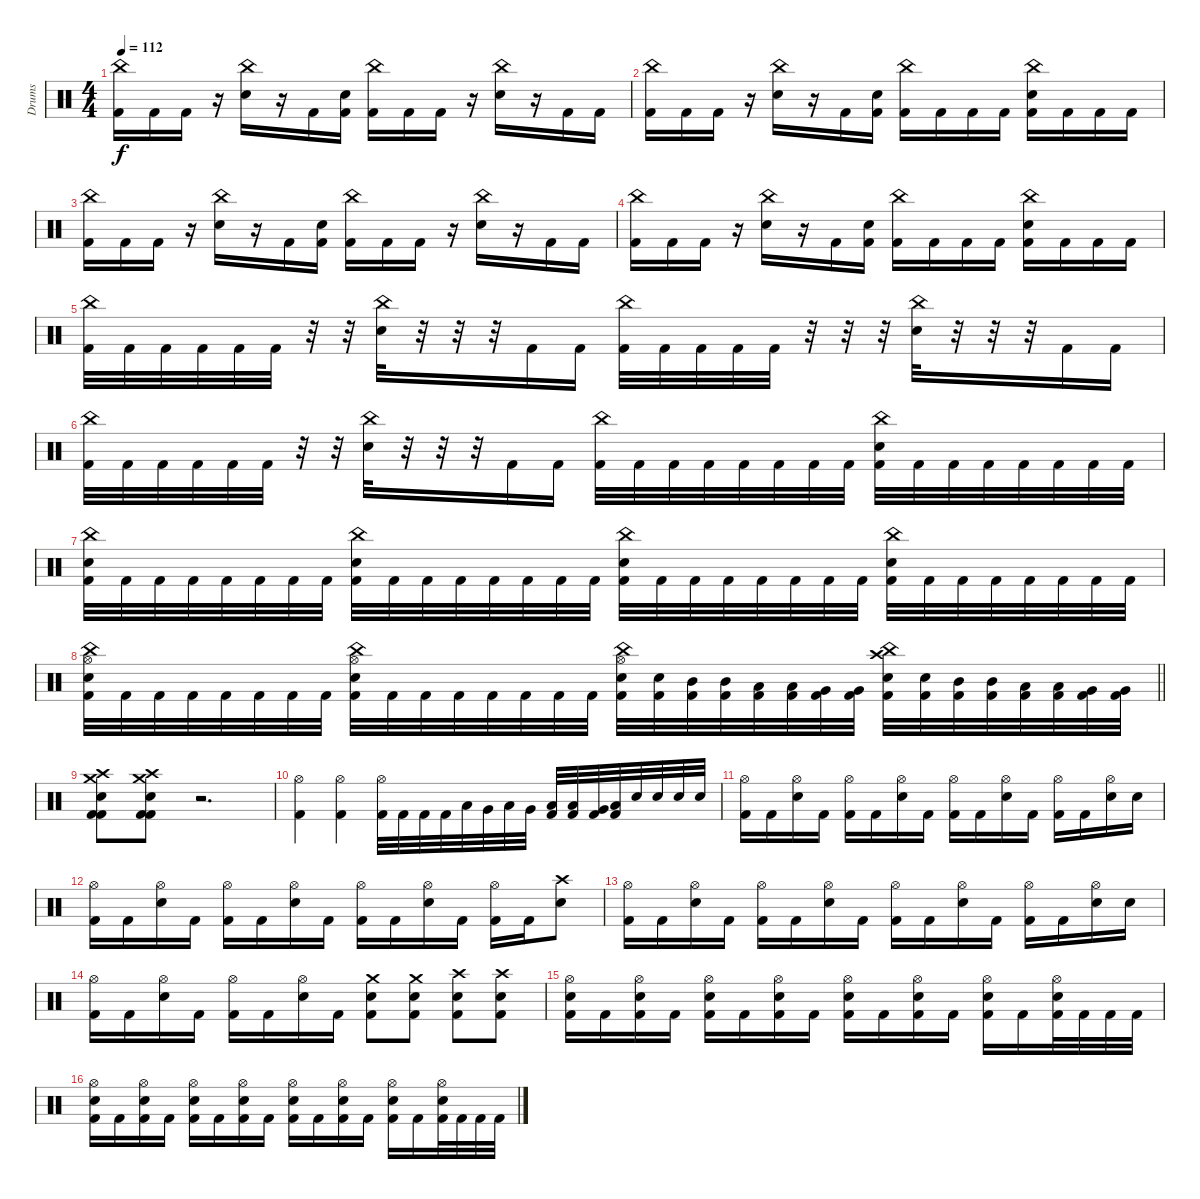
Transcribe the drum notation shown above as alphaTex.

\track ("Drums" "Drums") {instrument percussion}
\staff {score}
\articulation defaults
\ts (4 4)
\tempo 112
\clef neutral
\ks c
("China (hit)" "Kick (hit) 2").16{dy f} "Kick (hit) 2".16 "Kick (hit) 2".16 r.16 ("China (hit)" "Electric Snare (hit)").16 r.16 "Kick (hit) 2".16 ("Electric Snare (hit)" "Kick (hit) 2").16 ("China (hit)" "Kick (hit) 2").16 "Kick (hit) 2".16 "Kick (hit) 2".16 r.16 ("China (hit)" "Electric Snare (hit)").16 r.16 "Kick (hit) 2".16 "Kick (hit) 2".16 |
("China (hit)" "Kick (hit) 2").16 "Kick (hit) 2".16 "Kick (hit) 2".16 r.16 ("China (hit)" "Electric Snare (hit)").16 r.16 "Kick (hit) 2".16 ("Electric Snare (hit)" "Kick (hit) 2").16 ("China (hit)" "Kick (hit) 2").16 "Kick (hit) 2".16 "Kick (hit) 2".16 "Kick (hit) 2".16 ("China (hit)" "Electric Snare (hit)" "Kick (hit) 2").16 "Kick (hit) 2".16 "Kick (hit) 2".16 "Kick (hit) 2".16 |
("China (hit)" "Kick (hit) 2").16 "Kick (hit) 2".16 "Kick (hit) 2".16 r.16 ("China (hit)" "Electric Snare (hit)").16 r.16 "Kick (hit) 2".16 ("Electric Snare (hit)" "Kick (hit) 2").16 ("China (hit)" "Kick (hit) 2").16 "Kick (hit) 2".16 "Kick (hit) 2".16 r.16 ("China (hit)" "Electric Snare (hit)").16 r.16 "Kick (hit) 2".16 "Kick (hit) 2".16 |
("China (hit)" "Kick (hit) 2").16 "Kick (hit) 2".16 "Kick (hit) 2".16 r.16 ("China (hit)" "Electric Snare (hit)").16 r.16 "Kick (hit) 2".16 ("Electric Snare (hit)" "Kick (hit) 2").16 ("China (hit)" "Kick (hit) 2").16 "Kick (hit) 2".16 "Kick (hit) 2".16 "Kick (hit) 2".16 ("China (hit)" "Electric Snare (hit)" "Kick (hit) 2").16 "Kick (hit) 2".16 "Kick (hit) 2".16 "Kick (hit) 2".16 |
("China (hit)" "Kick (hit) 2").32 "Kick (hit) 2".32 "Kick (hit) 2".32 "Kick (hit) 2".32 "Kick (hit) 2".32 "Kick (hit) 2".32 r.32 r.32 ("China (hit)" "Electric Snare (hit)").32 r.32 r.32 r.32 "Kick (hit) 2".16 "Kick (hit) 2".16 ("China (hit)" "Kick (hit) 2").32 "Kick (hit) 2".32 "Kick (hit) 2".32 "Kick (hit) 2".32 "Kick (hit) 2".32 r.32 r.32 r.32 ("China (hit)" "Electric Snare (hit)").32 r.32 r.32 r.32 "Kick (hit) 2".16 "Kick (hit) 2".16 |
("China (hit)" "Kick (hit) 2").32 "Kick (hit) 2".32 "Kick (hit) 2".32 "Kick (hit) 2".32 "Kick (hit) 2".32 "Kick (hit) 2".32 r.32 r.32 ("China (hit)" "Electric Snare (hit)").32 r.32 r.32 r.32 "Kick (hit) 2".16 "Kick (hit) 2".16 ("China (hit)" "Kick (hit) 2").32 "Kick (hit) 2".32 "Kick (hit) 2".32 "Kick (hit) 2".32 "Kick (hit) 2".32 "Kick (hit) 2".32 "Kick (hit) 2".32 "Kick (hit) 2".32 ("China (hit)" "Electric Snare (hit)" "Kick (hit) 2").32 "Kick (hit) 2".32 "Kick (hit) 2".32 "Kick (hit) 2".32 "Kick (hit) 2".32 "Kick (hit) 2".32 "Kick (hit) 2".32 "Kick (hit) 2".32 |
("China (hit)" "Electric Snare (hit)" "Kick (hit) 2").32 "Kick (hit) 2".32 "Kick (hit) 2".32 "Kick (hit) 2".32 "Kick (hit) 2".32 "Kick (hit) 2".32 "Kick (hit) 2".32 "Kick (hit) 2".32 ("China (hit)" "Electric Snare (hit)" "Kick (hit) 2").32 "Kick (hit) 2".32 "Kick (hit) 2".32 "Kick (hit) 2".32 "Kick (hit) 2".32 "Kick (hit) 2".32 "Kick (hit) 2".32 "Kick (hit) 2".32 ("China (hit)" "Electric Snare (hit)" "Kick (hit) 2").32 "Kick (hit) 2".32 "Kick (hit) 2".32 "Kick (hit) 2".32 "Kick (hit) 2".32 "Kick (hit) 2".32 "Kick (hit) 2".32 "Kick (hit) 2".32 ("China (hit)" "Electric Snare (hit)" "Kick (hit) 2").32 "Kick (hit) 2".32 "Kick (hit) 2".32 "Kick (hit) 2".32 "Kick (hit) 2".32 "Kick (hit) 2".32 "Kick (hit) 2".32 "Kick (hit) 2".32 |
\barLineRight lightlight
("China (hit)" "Hi-Hat (open)" "Electric Snare (hit)" "Kick (hit) 2").32 "Kick (hit) 2".32 "Kick (hit) 2".32 "Kick (hit) 2".32 "Kick (hit) 2".32 "Kick (hit) 2".32 "Kick (hit) 2".32 "Kick (hit) 2".32 ("China (hit)" "Hi-Hat (open)" "Electric Snare (hit)" "Kick (hit) 2").32 "Kick (hit) 2".32 "Kick (hit) 2".32 "Kick (hit) 2".32 "Kick (hit) 2".32 "Kick (hit) 2".32 "Kick (hit) 2".32 "Kick (hit) 2".32 ("China (hit)" "Hi-Hat (open)" "Electric Snare (hit)" "Kick (hit) 2").32 ("Electric Snare (hit)" "Kick (hit) 2").32 ("Mid Tom (hit)" "Kick (hit) 2").32 ("Mid Tom (hit)" "Kick (hit) 2").32 ("Low Tom (hit)" "Kick (hit) 2").32 ("Low Tom (hit)" "Kick (hit) 2").32 ("Very Low Tom (hit)" "Kick (hit) 2").32 ("Very Low Tom (hit)" "Kick (hit) 2").32 ("China (hit)" "Crash high (hit)" "Electric Snare (hit)" "Kick (hit) 2").32 ("Electric Snare (hit)" "Kick (hit) 2").32 ("Mid Tom (hit)" "Kick (hit) 2").32 ("Mid Tom (hit)" "Kick (hit) 2").32 ("Low Tom (hit)" "Kick (hit) 2").32 ("Low Tom (hit)" "Kick (hit) 2").32 ("Very Low Tom (hit)" "Kick (hit) 2").32 ("Very Low Tom (hit)" "Kick (hit) 2").32 |
\section ("" "")
("Crash medium (hit)" "Crash high (hit)" "Electric Snare (hit)" "Kick (hit) 2" "Kick (hit) 2").8 ("Crash medium (hit)" "Crash high (hit)" "Electric Snare (hit)" "Kick (hit) 2" "Kick (hit) 2").8 r.2{d} |
("Hi-Hat (open)" "Kick (hit) 2").4 ("Hi-Hat (open)" "Kick (hit) 2").4 ("Hi-Hat (open)" "Kick (hit) 2").32 "Kick (hit) 2".32 "Kick (hit) 2".32 "Kick (hit) 2".32 "Low Tom (hit)".32 "Very Low Tom (hit)".32 "Low Tom (hit)".32 "Very Low Tom (hit)".32 ("Low Floor Tom (hit)" "Kick (hit) 2").32 ("Low Tom (hit)" "Kick (hit) 2").32 ("Very Low Tom (hit)" "Kick (hit) 2").32 ("Low Floor Tom (hit)" "Kick (hit) 2").32 "Electric Snare (hit)".32 "Electric Snare (hit)".32 "Electric Snare (hit)".32 "Electric Snare (hit)".32 |
("Hi-Hat (open)" "Kick (hit) 2").16 "Kick (hit) 2".16 ("Hi-Hat (open)" "Electric Snare (hit)").16 "Kick (hit) 2".16 ("Hi-Hat (open)" "Kick (hit) 2").16 "Kick (hit) 2".16 ("Hi-Hat (open)" "Electric Snare (hit)").16 "Kick (hit) 2".16 ("Hi-Hat (open)" "Kick (hit) 2").16 "Kick (hit) 2".16 ("Hi-Hat (open)" "Electric Snare (hit)").16 "Kick (hit) 2".16 ("Hi-Hat (open)" "Kick (hit) 2").16 "Kick (hit) 2".16 ("Hi-Hat (open)" "Electric Snare (hit)").16 "Electric Snare (hit)".16 |
("Hi-Hat (open)" "Kick (hit) 2").16 "Kick (hit) 2".16 ("Hi-Hat (open)" "Electric Snare (hit)").16 "Kick (hit) 2".16 ("Hi-Hat (open)" "Kick (hit) 2").16 "Kick (hit) 2".16 ("Hi-Hat (open)" "Electric Snare (hit)").16 "Kick (hit) 2".16 ("Hi-Hat (open)" "Kick (hit) 2").16 "Kick (hit) 2".16 ("Hi-Hat (open)" "Electric Snare (hit)").16 "Kick (hit) 2".16 ("Hi-Hat (open)" "Kick (hit) 2").16 "Kick (hit) 2".16 ("Crash high (hit)" "Electric Snare (hit)").8 |
("Hi-Hat (open)" "Kick (hit) 2").16 "Kick (hit) 2".16 ("Hi-Hat (open)" "Electric Snare (hit)").16 "Kick (hit) 2".16 ("Hi-Hat (open)" "Kick (hit) 2").16 "Kick (hit) 2".16 ("Hi-Hat (open)" "Electric Snare (hit)").16 "Kick (hit) 2".16 ("Hi-Hat (open)" "Kick (hit) 2").16 "Kick (hit) 2".16 ("Hi-Hat (open)" "Electric Snare (hit)").16 "Kick (hit) 2".16 ("Hi-Hat (open)" "Kick (hit) 2").16 "Kick (hit) 2".16 ("Hi-Hat (open)" "Electric Snare (hit)").16 "Electric Snare (hit)".16 |
("Hi-Hat (open)" "Kick (hit) 2").16 "Kick (hit) 2".16 ("Hi-Hat (open)" "Electric Snare (hit)").16 "Kick (hit) 2".16 ("Hi-Hat (open)" "Kick (hit) 2").16 "Kick (hit) 2".16 ("Hi-Hat (open)" "Electric Snare (hit)").16 "Kick (hit) 2".16 ("Crash medium (hit)" "Electric Snare (hit)" "Kick (hit) 2").8 ("Crash medium (hit)" "Electric Snare (hit)" "Kick (hit) 2").8 ("Crash high (hit)" "Electric Snare (hit)" "Kick (hit) 2").8 ("Crash high (hit)" "Electric Snare (hit)" "Kick (hit) 2").8 |
("Hi-Hat (open)" "Electric Snare (hit)" "Kick (hit) 2").16 "Kick (hit) 2".16 ("Hi-Hat (open)" "Electric Snare (hit)" "Kick (hit) 2").16 "Kick (hit) 2".16 ("Hi-Hat (open)" "Electric Snare (hit)" "Kick (hit) 2").16 "Kick (hit) 2".16 ("Hi-Hat (open)" "Electric Snare (hit)" "Kick (hit) 2").16 "Kick (hit) 2".16 ("Hi-Hat (open)" "Electric Snare (hit)" "Kick (hit) 2").16 "Kick (hit) 2".16 ("Hi-Hat (open)" "Electric Snare (hit)" "Kick (hit) 2").16 "Kick (hit) 2".16 ("Hi-Hat (open)" "Electric Snare (hit)" "Kick (hit) 2").16 "Kick (hit) 2".16 ("Hi-Hat (open)" "Electric Snare (hit)" "Kick (hit) 2").32 "Kick (hit) 2".32 "Kick (hit) 2".32 "Kick (hit) 2".32 |
("Hi-Hat (open)" "Electric Snare (hit)" "Kick (hit) 2").16 "Kick (hit) 2".16 ("Hi-Hat (open)" "Electric Snare (hit)" "Kick (hit) 2").16 "Kick (hit) 2".16 ("Hi-Hat (open)" "Electric Snare (hit)" "Kick (hit) 2").16 "Kick (hit) 2".16 ("Hi-Hat (open)" "Electric Snare (hit)" "Kick (hit) 2").16 "Kick (hit) 2".16 ("Hi-Hat (open)" "Electric Snare (hit)" "Kick (hit) 2").16 "Kick (hit) 2".16 ("Hi-Hat (open)" "Electric Snare (hit)" "Kick (hit) 2").16 "Kick (hit) 2".16 ("Hi-Hat (open)" "Electric Snare (hit)" "Kick (hit) 2").16 "Kick (hit) 2".16 ("Hi-Hat (open)" "Electric Snare (hit)" "Kick (hit) 2").32 "Kick (hit) 2".32 "Kick (hit) 2".32 "Kick (hit) 2".32
